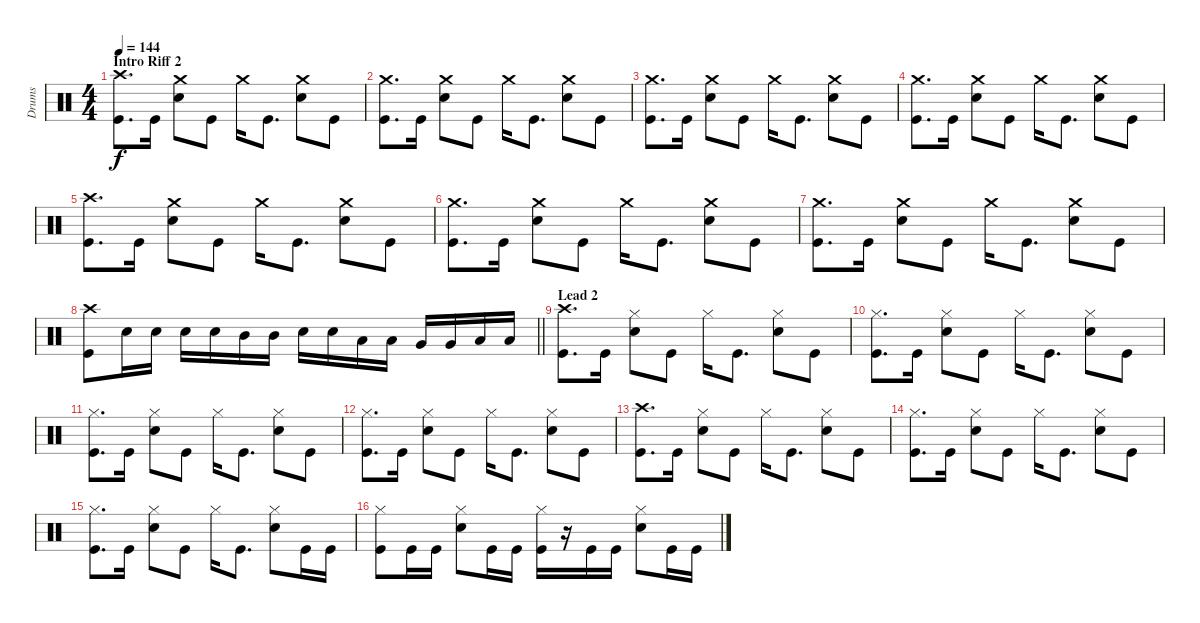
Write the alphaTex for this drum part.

\track ("Drums" "Drums") {instrument percussion}
\staff {score}
\articulation defaults
\ts (4 4)
\section ("" "Intro Riff 2")
\tempo 144
\clef neutral
\ks c
("Crash high (hit)" "Kick (hit)").8{d dy f} "Kick (hit)".16 ("Crash medium (hit)" "Electric Snare (hit)").8 "Kick (hit)".8 "Crash medium (hit)".16 "Kick (hit)".8{d} ("Crash medium (hit)" "Electric Snare (hit)").8 "Kick (hit)".8 |
("Crash medium (hit)" "Kick (hit)").8{d} "Kick (hit)".16 ("Crash medium (hit)" "Electric Snare (hit)").8 "Kick (hit)".8 "Crash medium (hit)".16 "Kick (hit)".8{d} ("Crash medium (hit)" "Electric Snare (hit)").8 "Kick (hit)".8 |
("Crash medium (hit)" "Kick (hit)").8{d} "Kick (hit)".16 ("Crash medium (hit)" "Electric Snare (hit)").8 "Kick (hit)".8 "Crash medium (hit)".16 "Kick (hit)".8{d} ("Crash medium (hit)" "Electric Snare (hit)").8 "Kick (hit)".8 |
("Crash medium (hit)" "Kick (hit)").8{d} "Kick (hit)".16 ("Crash medium (hit)" "Electric Snare (hit)").8 "Kick (hit)".8 "Crash medium (hit)".16 "Kick (hit)".8{d} ("Crash medium (hit)" "Electric Snare (hit)").8 "Kick (hit)".8 |
("Crash high (hit)" "Kick (hit)").8{d} "Kick (hit)".16 ("Crash medium (hit)" "Electric Snare (hit)").8 "Kick (hit)".8 "Crash medium (hit)".16 "Kick (hit)".8{d} ("Crash medium (hit)" "Electric Snare (hit)").8 "Kick (hit)".8 |
("Crash medium (hit)" "Kick (hit)").8{d} "Kick (hit)".16 ("Crash medium (hit)" "Electric Snare (hit)").8 "Kick (hit)".8 "Crash medium (hit)".16 "Kick (hit)".8{d} ("Crash medium (hit)" "Electric Snare (hit)").8 "Kick (hit)".8 |
("Crash medium (hit)" "Kick (hit)").8{d} "Kick (hit)".16 ("Crash medium (hit)" "Electric Snare (hit)").8 "Kick (hit)".8 "Crash medium (hit)".16 "Kick (hit)".8{d} ("Crash medium (hit)" "Electric Snare (hit)").8 "Kick (hit)".8 |
\barLineRight lightlight
("Crash high (hit)" "Kick (hit)").8 "Electric Snare (hit)".16 "Electric Snare (hit)".16 "Electric Snare (hit)".16 "Electric Snare (hit)".16 "Mid Tom (hit)".16 "Mid Tom (hit)".16 "Electric Snare (hit)".16 "Electric Snare (hit)".16 "Low Tom (hit)".16 "Low Tom (hit)".16 "Very Low Tom (hit)".16 "Very Low Tom (hit)".16 "Low Floor Tom (hit)".16 "Low Floor Tom (hit)".16 |
\section ("" "Lead 2")
("Crash high (hit)" "Kick (hit)").8{d} "Kick (hit)".16 ("Hi-Hat (closed)" "Electric Snare (hit)").8 "Kick (hit)".8 "Hi-Hat (closed)".16 "Kick (hit)".8{d} ("Hi-Hat (closed)" "Electric Snare (hit)").8 "Kick (hit)".8 |
("Hi-Hat (closed)" "Kick (hit)").8{d} "Kick (hit)".16 ("Hi-Hat (closed)" "Electric Snare (hit)").8 "Kick (hit)".8 "Hi-Hat (closed)".16 "Kick (hit)".8{d} ("Hi-Hat (closed)" "Electric Snare (hit)").8 "Kick (hit)".8 |
("Hi-Hat (closed)" "Kick (hit)").8{d} "Kick (hit)".16 ("Hi-Hat (closed)" "Electric Snare (hit)").8 "Kick (hit)".8 "Hi-Hat (closed)".16 "Kick (hit)".8{d} ("Hi-Hat (closed)" "Electric Snare (hit)").8 "Kick (hit)".8 |
("Hi-Hat (closed)" "Kick (hit)").8{d} "Kick (hit)".16 ("Hi-Hat (closed)" "Electric Snare (hit)").8 "Kick (hit)".8 "Hi-Hat (closed)".16 "Kick (hit)".8{d} ("Hi-Hat (closed)" "Electric Snare (hit)").8 "Kick (hit)".8 |
("Crash high (hit)" "Kick (hit)").8{d} "Kick (hit)".16 ("Hi-Hat (closed)" "Electric Snare (hit)").8 "Kick (hit)".8 "Hi-Hat (closed)".16 "Kick (hit)".8{d} ("Hi-Hat (closed)" "Electric Snare (hit)").8 "Kick (hit)".8 |
("Hi-Hat (closed)" "Kick (hit)").8{d} "Kick (hit)".16 ("Hi-Hat (closed)" "Electric Snare (hit)").8 "Kick (hit)".8 "Hi-Hat (closed)".16 "Kick (hit)".8{d} ("Hi-Hat (closed)" "Electric Snare (hit)").8 "Kick (hit)".8 |
("Hi-Hat (closed)" "Kick (hit)").8{d} "Kick (hit)".16 ("Hi-Hat (closed)" "Electric Snare (hit)").8 "Kick (hit)".8 "Hi-Hat (closed)".16 "Kick (hit)".8{d} ("Hi-Hat (closed)" "Electric Snare (hit)").8 "Kick (hit)".16 "Kick (hit)".16 |
("Hi-Hat (closed)" "Kick (hit)").8 "Kick (hit)".16 "Kick (hit)".16 ("Hi-Hat (closed)" "Electric Snare (hit)").8 "Kick (hit)".16 "Kick (hit)".16 ("Hi-Hat (closed)" "Kick (hit)").16 r.16 "Kick (hit)".16 "Kick (hit)".16 ("Hi-Hat (closed)" "Electric Snare (hit)").8 "Kick (hit)".16 "Kick (hit)".16
